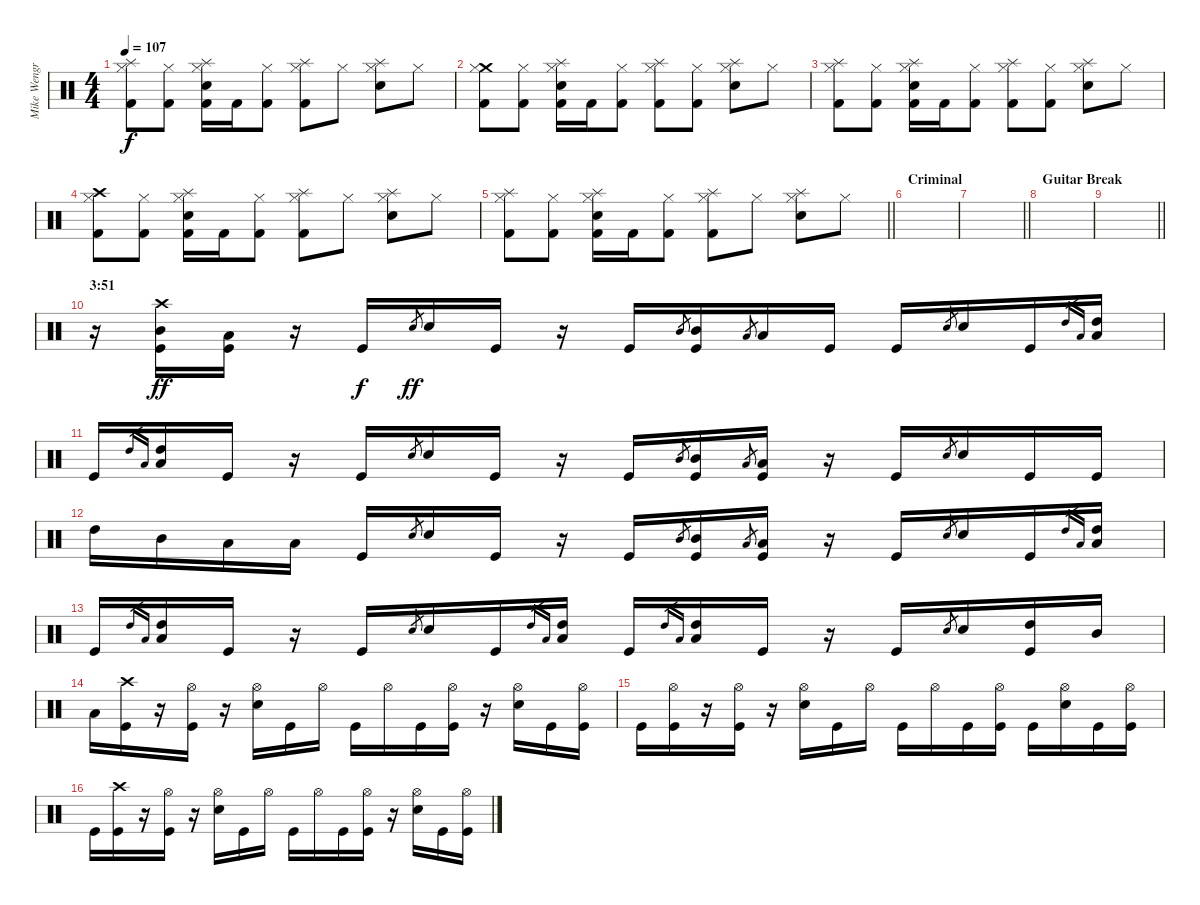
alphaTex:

\track ("Mike Wengren" "Mike Wengr") {instrument percussion}
\staff {score}
\articulation defaults
\ts (4 4)
\tempo 107
\clef neutral
\ks c
("Splash (hit)" "Hi-Hat (closed)" "Kick (hit) 2").8{dy f} ("Hi-Hat (closed)" "Kick (hit) 2").8 ("Splash (hit)" "Hi-Hat (closed)" "Electric Snare (hit)" "Kick (hit) 2").16 "Kick (hit) 2".16 ("Hi-Hat (closed)" "Kick (hit) 2").8 ("Splash (hit)" "Hi-Hat (closed)" "Kick (hit) 2").8 "Hi-Hat (closed)".8 ("Splash (hit)" "Hi-Hat (closed)" "Electric Snare (hit)").8 "Hi-Hat (closed)".8 |
("Crash medium (hit)" "Hi-Hat (closed)" "Kick (hit) 2").8 ("Hi-Hat (closed)" "Kick (hit) 2").8 ("Splash (hit)" "Hi-Hat (closed)" "Electric Snare (hit)" "Kick (hit) 2").16 "Kick (hit) 2".16 ("Hi-Hat (closed)" "Kick (hit) 2").8 ("Splash (hit)" "Hi-Hat (closed)" "Kick (hit) 2").8 ("Hi-Hat (closed)" "Kick (hit) 2").8 ("Splash (hit)" "Hi-Hat (closed)" "Electric Snare (hit)").8 "Hi-Hat (closed)".8 |
("Splash (hit)" "Hi-Hat (closed)" "Kick (hit) 2").8 ("Hi-Hat (closed)" "Kick (hit) 2").8 ("Splash (hit)" "Hi-Hat (closed)" "Electric Snare (hit)" "Kick (hit) 2").16 "Kick (hit) 2".16 ("Hi-Hat (closed)" "Kick (hit) 2").8 ("Splash (hit)" "Hi-Hat (closed)" "Kick (hit) 2").8 ("Hi-Hat (closed)" "Kick (hit) 2").8 ("Splash (hit)" "Hi-Hat (closed)" "Electric Snare (hit)").8 "Hi-Hat (closed)".8 |
("Crash high (hit)" "Hi-Hat (closed)" "Kick (hit) 2").8 ("Hi-Hat (closed)" "Kick (hit) 2").8 ("Splash (hit)" "Hi-Hat (closed)" "Electric Snare (hit)" "Kick (hit) 2").16 "Kick (hit) 2".16 ("Hi-Hat (closed)" "Kick (hit) 2").8 ("Splash (hit)" "Hi-Hat (closed)" "Kick (hit) 2").8 "Hi-Hat (closed)".8 ("Splash (hit)" "Hi-Hat (closed)" "Electric Snare (hit)").8 "Hi-Hat (closed)".8 |
\barLineRight lightlight
("Splash (hit)" "Hi-Hat (closed)" "Kick (hit) 2").8 ("Hi-Hat (closed)" "Kick (hit) 2").8 ("Splash (hit)" "Hi-Hat (closed)" "Electric Snare (hit)" "Kick (hit) 2").16 "Kick (hit) 2".16 ("Hi-Hat (closed)" "Kick (hit) 2").8 ("Splash (hit)" "Hi-Hat (closed)" "Kick (hit) 2").8 "Hi-Hat (closed)".8 ("Splash (hit)" "Hi-Hat (closed)" "Electric Snare (hit)").8 "Hi-Hat (closed)".8 |
\section ("" "Criminal")
|
\barLineRight lightlight
|
\section ("" "Guitar Break")
|
\barLineRight lightlight
|
\section ("" "3:51")
r.16 ("Crash high (hit)" "Mid Tom (hit)" "Kick (hit)").16{dy ff} ("Low Floor Tom (hit)" "Kick (hit)").16 r.16 "Kick (hit)".16{dy f} "Electric Snare (hit)".8{gr dy ff} "Electric Snare (hit)".16 "Kick (hit)".16 r.16 "Kick (hit)".16 "Mid Tom (hit)".8{gr} ("Mid Tom (hit)" "Kick (hit)").16 "Low Floor Tom (hit)".8{gr} "Low Floor Tom (hit)".16 "Kick (hit)".16 "Kick (hit)".16 "Electric Snare (hit)".8{gr} "Electric Snare (hit)".16 "Kick (hit)".16 "High Tom (hit)".16{gr} "Low Floor Tom (hit)".16{gr} ("High Tom (hit)" "Low Floor Tom (hit)").16 |
"Kick (hit)".16 "High Tom (hit)".16{gr} "Low Floor Tom (hit)".16{gr} ("High Tom (hit)" "Low Floor Tom (hit)").16 "Kick (hit)".16 r.16 "Kick (hit)".16 "Electric Snare (hit)".8{gr} "Electric Snare (hit)".16 "Kick (hit)".16 r.16 "Kick (hit)".16 "Mid Tom (hit)".8{gr} ("Mid Tom (hit)" "Kick (hit)").16 "Low Floor Tom (hit)".8{gr} ("Low Floor Tom (hit)" "Kick (hit)").16 r.16 "Kick (hit)".16 "Electric Snare (hit)".8{gr} "Electric Snare (hit)".16 "Kick (hit)".16 "Kick (hit)".16 |
"High Tom (hit)".16 "Mid Tom (hit)".16 "Low Tom (hit)".16 "Low Floor Tom (hit)".16 "Kick (hit)".16 "Electric Snare (hit)".8{gr} "Electric Snare (hit)".16 "Kick (hit)".16 r.16 "Kick (hit)".16 "Mid Tom (hit)".8{gr} ("Mid Tom (hit)" "Kick (hit)").16 "Low Floor Tom (hit)".8{gr} ("Low Floor Tom (hit)" "Kick (hit)").16 r.16 "Kick (hit)".16 "Electric Snare (hit)".8{gr} "Electric Snare (hit)".16 "Kick (hit)".16 "High Tom (hit)".16{gr} "Low Floor Tom (hit)".16{gr} ("High Tom (hit)" "Low Floor Tom (hit)").16 |
"Kick (hit)".16 "High Tom (hit)".16{gr} "Low Floor Tom (hit)".16{gr} ("High Tom (hit)" "Low Floor Tom (hit)").16 "Kick (hit)".16 r.16 "Kick (hit)".16 "Electric Snare (hit)".8{gr} "Electric Snare (hit)".16 "Kick (hit)".16 "High Tom (hit)".16{gr} "Low Floor Tom (hit)".16{gr} ("High Tom (hit)" "Low Floor Tom (hit)").16 "Kick (hit)".16 "High Tom (hit)".16{gr} "Low Floor Tom (hit)".16{gr} ("High Tom (hit)" "Low Floor Tom (hit)").16 "Kick (hit)".16 r.16 "Kick (hit)".16 "Electric Snare (hit)".8{gr} "Electric Snare (hit)".16 ("High Tom (hit)" "Kick (hit)").16 "Mid Tom (hit)".16 |
"Low Tom (hit)".16 ("Crash high (hit)" "Kick (hit)").16 r.16 ("Hi-Hat (open)" "Kick (hit)").16 r.16 ("Hi-Hat (open)" "Electric Snare (hit)").16 "Kick (hit)".16 "Hi-Hat (open)".16 "Kick (hit)".16 "Hi-Hat (open)".16 "Kick (hit)".16 ("Hi-Hat (open)" "Kick (hit)").16 r.16 ("Hi-Hat (open)" "Electric Snare (hit)").16 "Kick (hit)".16 ("Hi-Hat (open)" "Kick (hit)").16 |
"Kick (hit)".16 ("Hi-Hat (open)" "Kick (hit)").16 r.16 ("Hi-Hat (open)" "Kick (hit)").16 r.16 ("Hi-Hat (open)" "Electric Snare (hit)").16 "Kick (hit)".16 "Hi-Hat (open)".16 "Kick (hit)".16 "Hi-Hat (open)".16 "Kick (hit)".16 ("Hi-Hat (open)" "Kick (hit)").16 "Kick (hit)".16 ("Hi-Hat (open)" "Electric Snare (hit)").16 "Kick (hit)".16 ("Hi-Hat (open)" "Kick (hit)").16 |
"Kick (hit)".16 ("Crash high (hit)" "Kick (hit)").16 r.16 ("Hi-Hat (open)" "Kick (hit)").16 r.16 ("Hi-Hat (open)" "Electric Snare (hit)").16 "Kick (hit)".16 "Hi-Hat (open)".16 "Kick (hit)".16 "Hi-Hat (open)".16 "Kick (hit)".16 ("Hi-Hat (open)" "Kick (hit)").16 r.16 ("Hi-Hat (open)" "Electric Snare (hit)").16 "Kick (hit)".16 ("Hi-Hat (open)" "Kick (hit)").16
